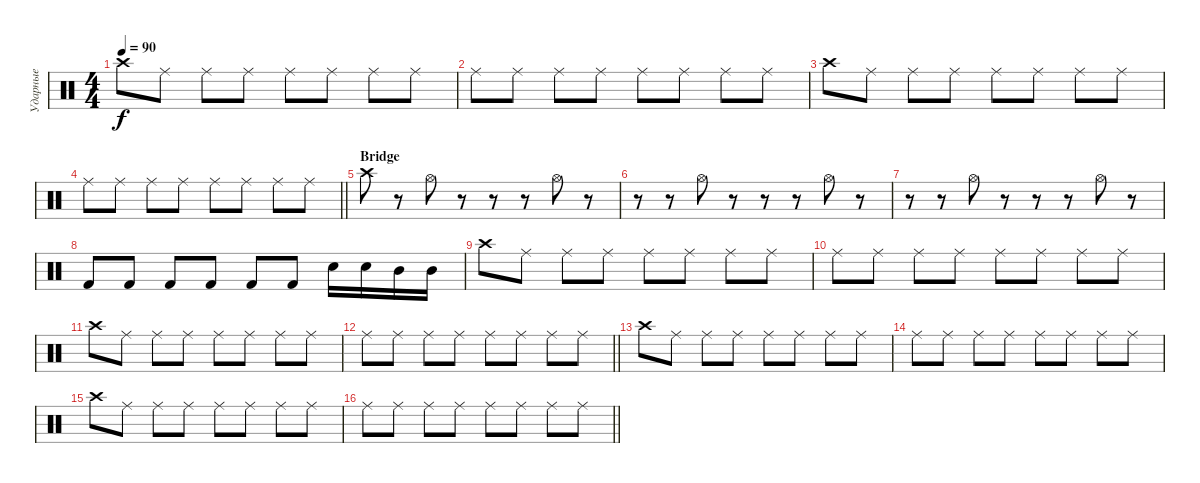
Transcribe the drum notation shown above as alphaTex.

\track ("Ударные" "Ударные") {instrument percussion}
\staff {score}
\articulation defaults
\ts (4 4)
\tempo 90
\clef neutral
\ks c "Crash high (hit)".8{dy f} "Ride (middle)".8 "Ride (middle)".8 "Ride (middle)".8 "Ride (middle)".8 "Ride (middle)".8 "Ride (middle)".8 "Ride (middle)".8
|
"Ride (middle)".8 "Ride (middle)".8 "Ride (middle)".8 "Ride (middle)".8 "Ride (middle)".8 "Ride (middle)".8 "Ride (middle)".8 "Ride (middle)".8 |
"Crash high (hit)".8 "Ride (middle)".8 "Ride (middle)".8 "Ride (middle)".8 "Ride (middle)".8 "Ride (middle)".8 "Ride (middle)".8 "Ride (middle)".8 |
\barLineRight lightlight "Ride (middle)".8 "Ride (middle)".8 "Ride (middle)".8 "Ride (middle)".8 "Ride (middle)".8 "Ride (middle)".8 "Ride (middle)".8 "Ride (middle)".8
|
\section ("" "Bridge")
"Crash high (hit)".8 r.8 "Hi-Hat (open)".8 r.8 r.8 r.8 "Hi-Hat (open)".8 r.8 |
r.8 r.8 "Hi-Hat (open)".8 r.8 r.8 r.8 "Hi-Hat (open)".8 r.8 |
r.8 r.8 "Hi-Hat (open)".8 r.8 r.8 r.8 "Hi-Hat (open)".8 r.8 |
"Kick (hit) 2".8 "Kick (hit) 2".8 "Kick (hit) 2".8 "Kick (hit) 2".8 "Kick (hit) 2".8 "Kick (hit) 2".8 "Snare (hit) 2".16 "Snare (hit) 2".16 "Mid Tom (hit)".16 "Mid Tom (hit)".16 |
"Crash high (hit)".8 "Ride (middle)".8 "Ride (middle)".8 "Ride (middle)".8 "Ride (middle)".8 "Ride (middle)".8 "Ride (middle)".8 "Ride (middle)".8 |
"Ride (middle)".8 "Ride (middle)".8 "Ride (middle)".8 "Ride (middle)".8 "Ride (middle)".8 "Ride (middle)".8 "Ride (middle)".8 "Ride (middle)".8 |
"Crash high (hit)".8 "Ride (middle)".8 "Ride (middle)".8 "Ride (middle)".8 "Ride (middle)".8 "Ride (middle)".8 "Ride (middle)".8 "Ride (middle)".8 |
\barLineRight lightlight "Ride (middle)".8 "Ride (middle)".8 "Ride (middle)".8 "Ride (middle)".8 "Ride (middle)".8 "Ride (middle)".8 "Ride (middle)".8 "Ride (middle)".8
|
"Crash high (hit)".8 "Ride (middle)".8 "Ride (middle)".8 "Ride (middle)".8 "Ride (middle)".8 "Ride (middle)".8 "Ride (middle)".8 "Ride (middle)".8 |
"Ride (middle)".8 "Ride (middle)".8 "Ride (middle)".8 "Ride (middle)".8 "Ride (middle)".8 "Ride (middle)".8 "Ride (middle)".8 "Ride (middle)".8 |
"Crash high (hit)".8 "Ride (middle)".8 "Ride (middle)".8 "Ride (middle)".8 "Ride (middle)".8 "Ride (middle)".8 "Ride (middle)".8 "Ride (middle)".8 |
\barLineRight lightlight "Ride (middle)".8 "Ride (middle)".8 "Ride (middle)".8 "Ride (middle)".8 "Ride (middle)".8 "Ride (middle)".8 "Ride (middle)".8 "Ride (middle)".8
